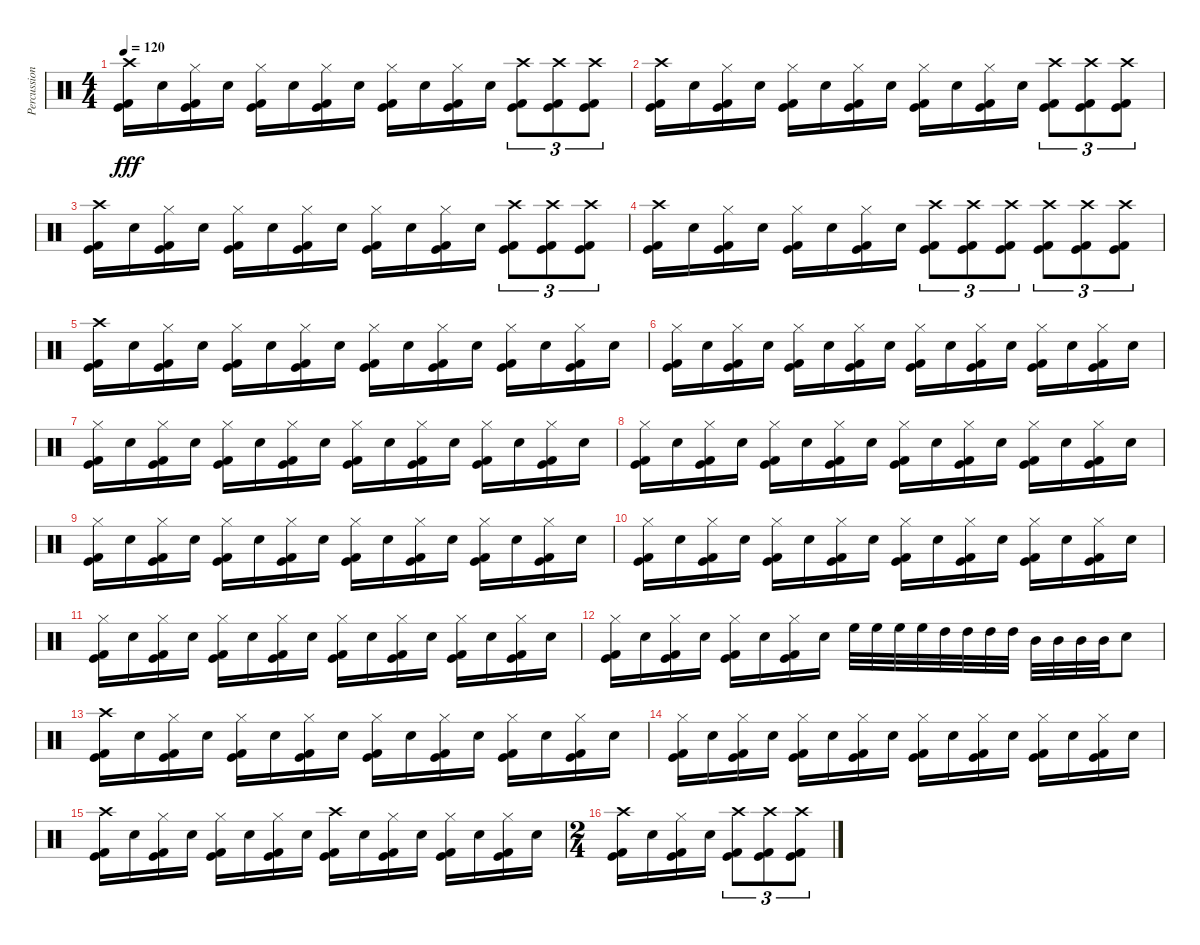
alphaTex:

\track ("Percussion" "Percussion") {instrument percussion}
\staff {score}
\articulation defaults
\ts (4 4)
\tempo 120
\clef neutral
\ks c
("Crash high (hit)" "Kick (hit) 2" "Kick (hit)").16{dy fff} "Electric Snare (hit)".16 ("Hi-Hat (closed)" "Kick (hit) 2" "Kick (hit)").16 "Electric Snare (hit)".16 ("Hi-Hat (closed)" "Kick (hit) 2" "Kick (hit)").16 "Electric Snare (hit)".16 ("Hi-Hat (closed)" "Kick (hit) 2" "Kick (hit)").16 "Electric Snare (hit)".16 ("Hi-Hat (closed)" "Kick (hit) 2" "Kick (hit)").16 "Electric Snare (hit)".16 ("Hi-Hat (closed)" "Kick (hit) 2" "Kick (hit)").16 "Electric Snare (hit)".16 ("Crash high (hit)" "Kick (hit) 2" "Kick (hit)").8{tu (3 2)} ("Crash high (hit)" "Kick (hit) 2" "Kick (hit)").8{tu (3 2)} ("Crash high (hit)" "Kick (hit) 2" "Kick (hit)").8{tu (3 2)} |
("Crash high (hit)" "Kick (hit) 2" "Kick (hit)").16 "Electric Snare (hit)".16 ("Hi-Hat (closed)" "Kick (hit) 2" "Kick (hit)").16 "Electric Snare (hit)".16 ("Hi-Hat (closed)" "Kick (hit) 2" "Kick (hit)").16 "Electric Snare (hit)".16 ("Hi-Hat (closed)" "Kick (hit) 2" "Kick (hit)").16 "Electric Snare (hit)".16 ("Hi-Hat (closed)" "Kick (hit) 2" "Kick (hit)").16 "Electric Snare (hit)".16 ("Hi-Hat (closed)" "Kick (hit) 2" "Kick (hit)").16 "Electric Snare (hit)".16 ("Crash high (hit)" "Kick (hit) 2" "Kick (hit)").8{tu (3 2)} ("Crash high (hit)" "Kick (hit) 2" "Kick (hit)").8{tu (3 2)} ("Crash high (hit)" "Kick (hit) 2" "Kick (hit)").8{tu (3 2)} |
("Crash high (hit)" "Kick (hit) 2" "Kick (hit)").16 "Electric Snare (hit)".16 ("Hi-Hat (closed)" "Kick (hit) 2" "Kick (hit)").16 "Electric Snare (hit)".16 ("Hi-Hat (closed)" "Kick (hit) 2" "Kick (hit)").16 "Electric Snare (hit)".16 ("Hi-Hat (closed)" "Kick (hit) 2" "Kick (hit)").16 "Electric Snare (hit)".16 ("Hi-Hat (closed)" "Kick (hit) 2" "Kick (hit)").16 "Electric Snare (hit)".16 ("Hi-Hat (closed)" "Kick (hit) 2" "Kick (hit)").16 "Electric Snare (hit)".16 ("Crash high (hit)" "Kick (hit) 2" "Kick (hit)").8{tu (3 2)} ("Crash high (hit)" "Kick (hit) 2" "Kick (hit)").8{tu (3 2)} ("Crash high (hit)" "Kick (hit) 2" "Kick (hit)").8{tu (3 2)} |
("Crash high (hit)" "Kick (hit) 2" "Kick (hit)").16 "Electric Snare (hit)".16 ("Hi-Hat (closed)" "Kick (hit) 2" "Kick (hit)").16 "Electric Snare (hit)".16 ("Hi-Hat (closed)" "Kick (hit) 2" "Kick (hit)").16 "Electric Snare (hit)".16 ("Hi-Hat (closed)" "Kick (hit) 2" "Kick (hit)").16 "Electric Snare (hit)".16 ("Crash high (hit)" "Kick (hit) 2" "Kick (hit)").8{tu (3 2)} ("Crash high (hit)" "Kick (hit) 2" "Kick (hit)").8{tu (3 2)} ("Crash high (hit)" "Kick (hit) 2" "Kick (hit)").8{tu (3 2)} ("Crash high (hit)" "Kick (hit) 2" "Kick (hit)").8{tu (3 2)} ("Crash high (hit)" "Kick (hit) 2" "Kick (hit)").8{tu (3 2)} ("Crash high (hit)" "Kick (hit) 2" "Kick (hit)").8{tu (3 2)} |
("Crash high (hit)" "Kick (hit) 2" "Kick (hit)").16 "Electric Snare (hit)".16 ("Hi-Hat (closed)" "Kick (hit) 2" "Kick (hit)").16 "Electric Snare (hit)".16 ("Hi-Hat (closed)" "Kick (hit) 2" "Kick (hit)").16 "Electric Snare (hit)".16 ("Hi-Hat (closed)" "Kick (hit) 2" "Kick (hit)").16 "Electric Snare (hit)".16 ("Hi-Hat (closed)" "Kick (hit) 2" "Kick (hit)").16 "Electric Snare (hit)".16 ("Hi-Hat (closed)" "Kick (hit) 2" "Kick (hit)").16 "Electric Snare (hit)".16 ("Hi-Hat (closed)" "Kick (hit) 2" "Kick (hit)").16 "Electric Snare (hit)".16 ("Hi-Hat (closed)" "Kick (hit) 2" "Kick (hit)").16 "Electric Snare (hit)".16 |
("Hi-Hat (closed)" "Kick (hit) 2" "Kick (hit)").16 "Electric Snare (hit)".16 ("Hi-Hat (closed)" "Kick (hit) 2" "Kick (hit)").16 "Electric Snare (hit)".16 ("Hi-Hat (closed)" "Kick (hit) 2" "Kick (hit)").16 "Electric Snare (hit)".16 ("Hi-Hat (closed)" "Kick (hit) 2" "Kick (hit)").16 "Electric Snare (hit)".16 ("Hi-Hat (closed)" "Kick (hit) 2" "Kick (hit)").16 "Electric Snare (hit)".16 ("Hi-Hat (closed)" "Kick (hit) 2" "Kick (hit)").16 "Electric Snare (hit)".16 ("Hi-Hat (closed)" "Kick (hit) 2" "Kick (hit)").16 "Electric Snare (hit)".16 ("Hi-Hat (closed)" "Kick (hit) 2" "Kick (hit)").16 "Electric Snare (hit)".16 |
("Hi-Hat (closed)" "Kick (hit) 2" "Kick (hit)").16 "Electric Snare (hit)".16 ("Hi-Hat (closed)" "Kick (hit) 2" "Kick (hit)").16 "Electric Snare (hit)".16 ("Hi-Hat (closed)" "Kick (hit) 2" "Kick (hit)").16 "Electric Snare (hit)".16 ("Hi-Hat (closed)" "Kick (hit) 2" "Kick (hit)").16 "Electric Snare (hit)".16 ("Hi-Hat (closed)" "Kick (hit) 2" "Kick (hit)").16 "Electric Snare (hit)".16 ("Hi-Hat (closed)" "Kick (hit) 2" "Kick (hit)").16 "Electric Snare (hit)".16 ("Hi-Hat (closed)" "Kick (hit) 2" "Kick (hit)").16 "Electric Snare (hit)".16 ("Hi-Hat (closed)" "Kick (hit) 2" "Kick (hit)").16 "Electric Snare (hit)".16 |
("Hi-Hat (closed)" "Kick (hit) 2" "Kick (hit)").16 "Electric Snare (hit)".16 ("Hi-Hat (closed)" "Kick (hit) 2" "Kick (hit)").16 "Electric Snare (hit)".16 ("Hi-Hat (closed)" "Kick (hit) 2" "Kick (hit)").16 "Electric Snare (hit)".16 ("Hi-Hat (closed)" "Kick (hit) 2" "Kick (hit)").16 "Electric Snare (hit)".16 ("Hi-Hat (closed)" "Kick (hit) 2" "Kick (hit)").16 "Electric Snare (hit)".16 ("Hi-Hat (closed)" "Kick (hit) 2" "Kick (hit)").16 "Electric Snare (hit)".16 ("Hi-Hat (closed)" "Kick (hit) 2" "Kick (hit)").16 "Electric Snare (hit)".16 ("Hi-Hat (closed)" "Kick (hit) 2" "Kick (hit)").16 "Electric Snare (hit)".16 |
("Hi-Hat (closed)" "Kick (hit) 2" "Kick (hit)").16 "Electric Snare (hit)".16 ("Hi-Hat (closed)" "Kick (hit) 2" "Kick (hit)").16 "Electric Snare (hit)".16 ("Hi-Hat (closed)" "Kick (hit) 2" "Kick (hit)").16 "Electric Snare (hit)".16 ("Hi-Hat (closed)" "Kick (hit) 2" "Kick (hit)").16 "Electric Snare (hit)".16 ("Hi-Hat (closed)" "Kick (hit) 2" "Kick (hit)").16 "Electric Snare (hit)".16 ("Hi-Hat (closed)" "Kick (hit) 2" "Kick (hit)").16 "Electric Snare (hit)".16 ("Hi-Hat (closed)" "Kick (hit) 2" "Kick (hit)").16 "Electric Snare (hit)".16 ("Hi-Hat (closed)" "Kick (hit) 2" "Kick (hit)").16 "Electric Snare (hit)".16 |
("Hi-Hat (closed)" "Kick (hit) 2" "Kick (hit)").16 "Electric Snare (hit)".16 ("Hi-Hat (closed)" "Kick (hit) 2" "Kick (hit)").16 "Electric Snare (hit)".16 ("Hi-Hat (closed)" "Kick (hit) 2" "Kick (hit)").16 "Electric Snare (hit)".16 ("Hi-Hat (closed)" "Kick (hit) 2" "Kick (hit)").16 "Electric Snare (hit)".16 ("Hi-Hat (closed)" "Kick (hit) 2" "Kick (hit)").16 "Electric Snare (hit)".16 ("Hi-Hat (closed)" "Kick (hit) 2" "Kick (hit)").16 "Electric Snare (hit)".16 ("Hi-Hat (closed)" "Kick (hit) 2" "Kick (hit)").16 "Electric Snare (hit)".16 ("Hi-Hat (closed)" "Kick (hit) 2" "Kick (hit)").16 "Electric Snare (hit)".16 |
("Hi-Hat (closed)" "Kick (hit) 2" "Kick (hit)").16 "Electric Snare (hit)".16 ("Hi-Hat (closed)" "Kick (hit) 2" "Kick (hit)").16 "Electric Snare (hit)".16 ("Hi-Hat (closed)" "Kick (hit) 2" "Kick (hit)").16 "Electric Snare (hit)".16 ("Hi-Hat (closed)" "Kick (hit) 2" "Kick (hit)").16 "Electric Snare (hit)".16 ("Hi-Hat (closed)" "Kick (hit) 2" "Kick (hit)").16 "Electric Snare (hit)".16 ("Hi-Hat (closed)" "Kick (hit) 2" "Kick (hit)").16 "Electric Snare (hit)".16 ("Hi-Hat (closed)" "Kick (hit) 2" "Kick (hit)").16 "Electric Snare (hit)".16 ("Hi-Hat (closed)" "Kick (hit) 2" "Kick (hit)").16 "Electric Snare (hit)".16 |
("Hi-Hat (closed)" "Kick (hit) 2" "Kick (hit)").16 "Electric Snare (hit)".16 ("Hi-Hat (closed)" "Kick (hit) 2" "Kick (hit)").16 "Electric Snare (hit)".16 ("Hi-Hat (closed)" "Kick (hit) 2" "Kick (hit)").16 "Electric Snare (hit)".16 ("Hi-Hat (closed)" "Kick (hit) 2" "Kick (hit)").16 "Electric Snare (hit)".16 "High Floor Tom (hit)".32 "High Floor Tom (hit)".32 "High Floor Tom (hit)".32 "High Floor Tom (hit)".32 "High Tom (hit)".32 "High Tom (hit)".32 "High Tom (hit)".32 "High Tom (hit)".32 "Mid Tom (hit)".32 "Mid Tom (hit)".32 "Mid Tom (hit)".32 "Mid Tom (hit)".32 "Electric Snare (hit)".8 |
("Crash high (hit)" "Kick (hit) 2" "Kick (hit)").16 "Electric Snare (hit)".16 ("Hi-Hat (closed)" "Kick (hit) 2" "Kick (hit)").16 "Electric Snare (hit)".16 ("Hi-Hat (closed)" "Kick (hit) 2" "Kick (hit)").16 "Electric Snare (hit)".16 ("Hi-Hat (closed)" "Kick (hit) 2" "Kick (hit)").16 "Electric Snare (hit)".16 ("Hi-Hat (closed)" "Kick (hit) 2" "Kick (hit)").16 "Electric Snare (hit)".16 ("Hi-Hat (closed)" "Kick (hit) 2" "Kick (hit)").16 "Electric Snare (hit)".16 ("Hi-Hat (closed)" "Kick (hit) 2" "Kick (hit)").16 "Electric Snare (hit)".16 ("Hi-Hat (closed)" "Kick (hit) 2" "Kick (hit)").16 "Electric Snare (hit)".16 |
("Hi-Hat (closed)" "Kick (hit) 2" "Kick (hit)").16 "Electric Snare (hit)".16 ("Hi-Hat (closed)" "Kick (hit) 2" "Kick (hit)").16 "Electric Snare (hit)".16 ("Hi-Hat (closed)" "Kick (hit) 2" "Kick (hit)").16 "Electric Snare (hit)".16 ("Hi-Hat (closed)" "Kick (hit) 2" "Kick (hit)").16 "Electric Snare (hit)".16 ("Hi-Hat (closed)" "Kick (hit) 2" "Kick (hit)").16 "Electric Snare (hit)".16 ("Hi-Hat (closed)" "Kick (hit) 2" "Kick (hit)").16 "Electric Snare (hit)".16 ("Hi-Hat (closed)" "Kick (hit) 2" "Kick (hit)").16 "Electric Snare (hit)".16 ("Hi-Hat (closed)" "Kick (hit) 2" "Kick (hit)").16 "Electric Snare (hit)".16 |
("Crash high (hit)" "Kick (hit) 2" "Kick (hit)").16 "Electric Snare (hit)".16 ("Hi-Hat (closed)" "Kick (hit) 2" "Kick (hit)").16 "Electric Snare (hit)".16 ("Hi-Hat (closed)" "Kick (hit) 2" "Kick (hit)").16 "Electric Snare (hit)".16 ("Hi-Hat (closed)" "Kick (hit) 2" "Kick (hit)").16 "Electric Snare (hit)".16 ("Crash high (hit)" "Kick (hit) 2" "Kick (hit)").16 "Electric Snare (hit)".16 ("Hi-Hat (closed)" "Kick (hit) 2" "Kick (hit)").16 "Electric Snare (hit)".16 ("Hi-Hat (closed)" "Kick (hit) 2" "Kick (hit)").16 "Electric Snare (hit)".16 ("Hi-Hat (closed)" "Kick (hit) 2" "Kick (hit)").16 "Electric Snare (hit)".16 |
\ts (2 4)
("Crash high (hit)" "Kick (hit) 2" "Kick (hit)").16 "Electric Snare (hit)".16 ("Hi-Hat (closed)" "Kick (hit) 2" "Kick (hit)").16 "Electric Snare (hit)".16 ("Crash high (hit)" "Kick (hit) 2" "Kick (hit)").8{tu (3 2)} ("Crash high (hit)" "Kick (hit) 2" "Kick (hit)").8{tu (3 2)} ("Crash high (hit)" "Kick (hit) 2" "Kick (hit)").8{tu (3 2)}
